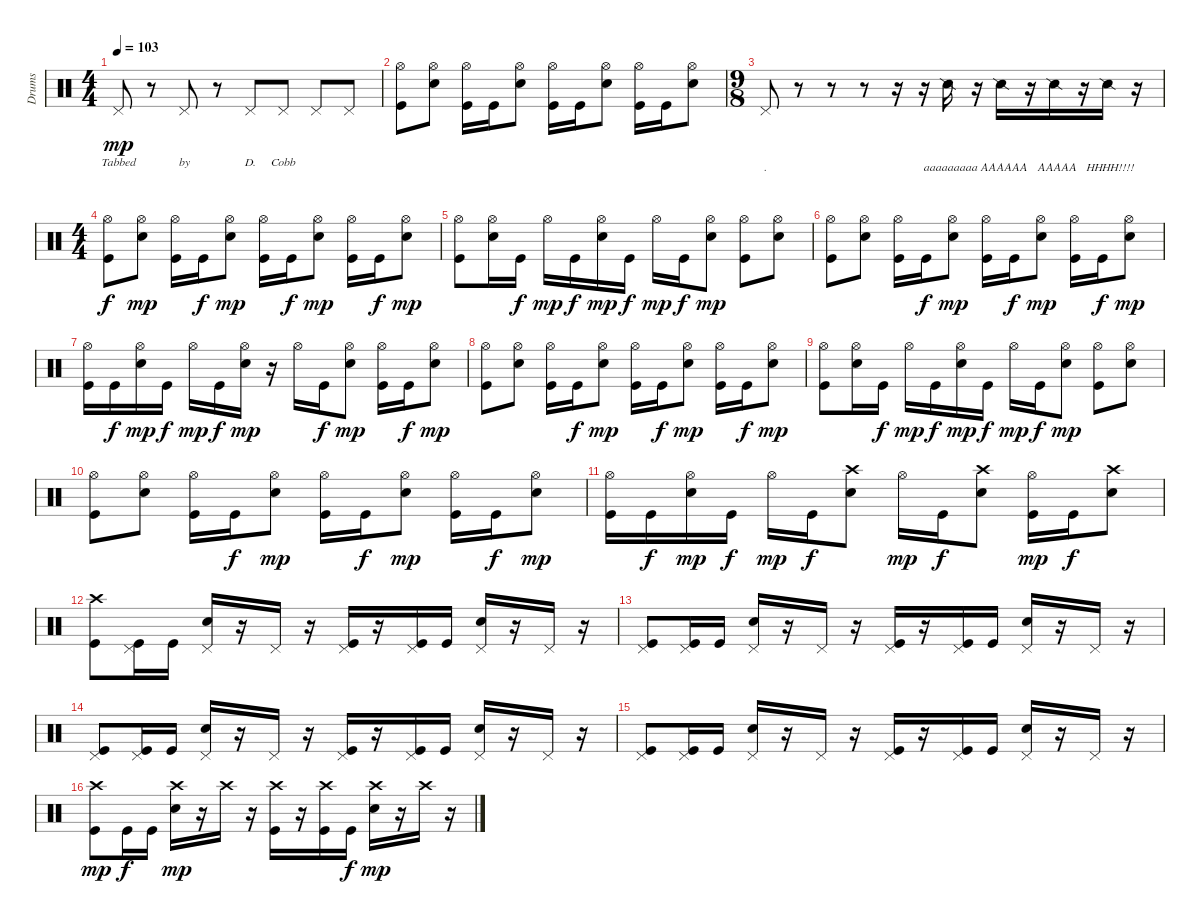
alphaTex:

\track ("Drums" "Drums") {instrument percussion}
\staff {score}
\articulation defaults
\ts (4 4)
\tempo 103
\clef neutral
\ks c "Pedal Hi-Hat (hit)".8{lyrics (0 "Tabbed") lyrics (1 "") lyrics (2 "") lyrics (3 "") lyrics (4 "") dy mp}
r.8 "Pedal Hi-Hat (hit)".8{lyrics (0 "by") lyrics (1 "") lyrics (2 "") lyrics (3 "") lyrics (4 "")} r.8 "Pedal Hi-Hat (hit)".8{lyrics (0 "D.") lyrics (1 "") lyrics (2 "") lyrics (3 "") lyrics (4 "")} "Pedal Hi-Hat (hit)".8{lyrics (0 "Cobb") lyrics (1 "") lyrics (2 "") lyrics (3 "") lyrics (4 "")} "Pedal Hi-Hat (hit)".8 "Pedal Hi-Hat (hit)".8 |
("Hi-Hat (open)" "Kick (hit)").8 ("Hi-Hat (open)" "Snare (hit) 2").8 ("Hi-Hat (open)" "Kick (hit)").16 "Kick (hit)".16 ("Hi-Hat (open)" "Snare (hit) 2").8 ("Hi-Hat (open)" "Kick (hit)").16 "Kick (hit)".16 ("Hi-Hat (open)" "Snare (hit) 2").8 ("Hi-Hat (open)" "Kick (hit)").16 "Kick (hit)".16 ("Hi-Hat (open)" "Snare (hit) 2").8 |
\ts (9 8)
"Pedal Hi-Hat (hit)".8{lyrics (0 "") lyrics (1 ".") lyrics (2 "") lyrics (3 "") lyrics (4 "")} r.8 r.8 r.8 r.16 r.16 "Snare (side stick) 2".16{lyrics (0 "") lyrics (1 "aaaaaaaaa") lyrics (2 "") lyrics (3 "") lyrics (4 "")} r.16 "Snare (side stick) 2".16{lyrics (0 "") lyrics (1 "AAAAAA") lyrics (2 "") lyrics (3 "") lyrics (4 "")} r.16 "Snare (side stick) 2".16{lyrics (0 "") lyrics (1 "AAAAA") lyrics (2 "") lyrics (3 "") lyrics (4 "")} r.16 "Snare (side stick) 2".16{lyrics (0 "") lyrics (1 "HHHH!!!!") lyrics (2 "") lyrics (3 "") lyrics (4 "")} r.16 |
\ts (4 4)
("Hi-Hat (open)" "Kick (hit)").8{dy f} ("Hi-Hat (open)" "Snare (hit) 2").8{dy mp} ("Hi-Hat (open)" "Kick (hit)").16 "Kick (hit)".16{dy f} ("Hi-Hat (open)" "Snare (hit) 2").8{dy mp} ("Hi-Hat (open)" "Kick (hit)").16 "Kick (hit)".16{dy f} ("Hi-Hat (open)" "Snare (hit) 2").8{dy mp} ("Hi-Hat (open)" "Kick (hit)").16 "Kick (hit)".16{dy f} ("Hi-Hat (open)" "Snare (hit) 2").8{dy mp} |
("Hi-Hat (open)" "Kick (hit)").8 ("Hi-Hat (open)" "Snare (hit) 2").16 "Kick (hit)".16{dy f} "Hi-Hat (open)".16{dy mp} "Kick (hit)".16{dy f} ("Hi-Hat (open)" "Snare (hit) 2").16{dy mp} "Kick (hit)".16{dy f} "Hi-Hat (open)".16{dy mp} "Kick (hit)".16{dy f} ("Hi-Hat (open)" "Snare (hit) 2").8{dy mp} ("Hi-Hat (open)" "Kick (hit)").8 ("Hi-Hat (open)" "Snare (hit) 2").8 |
("Hi-Hat (open)" "Kick (hit)").8 ("Hi-Hat (open)" "Snare (hit) 2").8 ("Hi-Hat (open)" "Kick (hit)").16 "Kick (hit)".16{dy f} ("Hi-Hat (open)" "Snare (hit) 2").8{dy mp} ("Hi-Hat (open)" "Kick (hit)").16 "Kick (hit)".16{dy f} ("Hi-Hat (open)" "Snare (hit) 2").8{dy mp} ("Hi-Hat (open)" "Kick (hit)").16 "Kick (hit)".16{dy f} ("Hi-Hat (open)" "Snare (hit) 2").8{dy mp} |
("Hi-Hat (open)" "Kick (hit)").16 "Kick (hit)".16{dy f} ("Hi-Hat (open)" "Snare (hit) 2").16{dy mp} "Kick (hit)".16{dy f} "Hi-Hat (open)".16{dy mp} "Kick (hit)".16{dy f} ("Hi-Hat (open)" "Snare (hit) 2").16{dy mp} r.16 "Hi-Hat (open)".16 "Kick (hit)".16{dy f} ("Hi-Hat (open)" "Snare (hit) 2").8{dy mp} ("Hi-Hat (open)" "Kick (hit)").16 "Kick (hit)".16{dy f} ("Hi-Hat (open)" "Snare (hit) 2").8{dy mp} |
("Hi-Hat (open)" "Kick (hit)").8 ("Hi-Hat (open)" "Snare (hit) 2").8 ("Hi-Hat (open)" "Kick (hit)").16 "Kick (hit)".16{dy f} ("Hi-Hat (open)" "Snare (hit) 2").8{dy mp} ("Hi-Hat (open)" "Kick (hit)").16 "Kick (hit)".16{dy f} ("Hi-Hat (open)" "Snare (hit) 2").8{dy mp} ("Hi-Hat (open)" "Kick (hit)").16 "Kick (hit)".16{dy f} ("Hi-Hat (open)" "Snare (hit) 2").8{dy mp} |
("Hi-Hat (open)" "Kick (hit)").8 ("Hi-Hat (open)" "Snare (hit) 2").16 "Kick (hit)".16{dy f} "Hi-Hat (open)".16{dy mp} "Kick (hit)".16{dy f} ("Hi-Hat (open)" "Snare (hit) 2").16{dy mp} "Kick (hit)".16{dy f} "Hi-Hat (open)".16{dy mp} "Kick (hit)".16{dy f} ("Hi-Hat (open)" "Snare (hit) 2").8{dy mp} ("Hi-Hat (open)" "Kick (hit)").8 ("Hi-Hat (open)" "Snare (hit) 2").8 |
("Hi-Hat (open)" "Kick (hit)").8 ("Hi-Hat (open)" "Snare (hit) 2").8 ("Hi-Hat (open)" "Kick (hit)").16 "Kick (hit)".16{dy f} ("Hi-Hat (open)" "Snare (hit) 2").8{dy mp} ("Hi-Hat (open)" "Kick (hit)").16 "Kick (hit)".16{dy f} ("Hi-Hat (open)" "Snare (hit) 2").8{dy mp} ("Hi-Hat (open)" "Kick (hit)").16 "Kick (hit)".16{dy f} ("Hi-Hat (open)" "Snare (hit) 2").8{dy mp} |
("Hi-Hat (open)" "Kick (hit)").16 "Kick (hit)".16{dy f} ("Hi-Hat (open)" "Snare (hit) 2").16{dy mp} "Kick (hit)".16{dy f} "Hi-Hat (open)".16{dy mp} "Kick (hit)".16{dy f} ("Crash high (hit)" "Snare (hit) 2").8 "Hi-Hat (open)".16{dy mp} "Kick (hit)".16{dy f} ("Crash high (hit)" "Snare (hit) 2").8 ("Hi-Hat (open)" "Kick (hit)").16{dy mp} "Kick (hit)".16{dy f} ("Crash high (hit)" "Snare (hit) 2").8 |
("Crash high (hit)" "Kick (hit)").8 ("Pedal Hi-Hat (hit)" "Kick (hit)").16 "Kick (hit)".16 ("Pedal Hi-Hat (hit)" "Snare (hit) 2").16 r.16 "Pedal Hi-Hat (hit)".16 r.16 ("Pedal Hi-Hat (hit)" "Kick (hit)").16 r.16 ("Pedal Hi-Hat (hit)" "Kick (hit)").16 "Kick (hit)".16 ("Pedal Hi-Hat (hit)" "Snare (hit) 2").16 r.16 "Pedal Hi-Hat (hit)".16 r.16 |
("Pedal Hi-Hat (hit)" "Kick (hit)").8 ("Pedal Hi-Hat (hit)" "Kick (hit)").16 "Kick (hit)".16 ("Pedal Hi-Hat (hit)" "Snare (hit) 2").16 r.16 "Pedal Hi-Hat (hit)".16 r.16 ("Pedal Hi-Hat (hit)" "Kick (hit)").16 r.16 ("Pedal Hi-Hat (hit)" "Kick (hit)").16 "Kick (hit)".16 ("Pedal Hi-Hat (hit)" "Snare (hit) 2").16 r.16 "Pedal Hi-Hat (hit)".16 r.16 |
("Pedal Hi-Hat (hit)" "Kick (hit)").8 ("Pedal Hi-Hat (hit)" "Kick (hit)").16 "Kick (hit)".16 ("Pedal Hi-Hat (hit)" "Snare (hit) 2").16 r.16 "Pedal Hi-Hat (hit)".16 r.16 ("Pedal Hi-Hat (hit)" "Kick (hit)").16 r.16 ("Pedal Hi-Hat (hit)" "Kick (hit)").16 "Kick (hit)".16 ("Pedal Hi-Hat (hit)" "Snare (hit) 2").16 r.16 "Pedal Hi-Hat (hit)".16 r.16 |
("Pedal Hi-Hat (hit)" "Kick (hit)").8 ("Pedal Hi-Hat (hit)" "Kick (hit)").16 "Kick (hit)".16 ("Pedal Hi-Hat (hit)" "Snare (hit) 2").16 r.16 "Pedal Hi-Hat (hit)".16 r.16 ("Pedal Hi-Hat (hit)" "Kick (hit)").16 r.16 ("Pedal Hi-Hat (hit)" "Kick (hit)").16 "Kick (hit)".16 ("Pedal Hi-Hat (hit)" "Snare (hit) 2").16 r.16 "Pedal Hi-Hat (hit)".16 r.16 |
("Crash high (hit)" "Kick (hit)").8{dy mp} "Kick (hit)".16{dy f} "Kick (hit)".16 ("Crash high (hit)" "Snare (hit) 2").16{dy mp} r.16 "Crash high (hit)".16 r.16 ("Crash high (hit)" "Kick (hit)").16 r.16 ("Crash high (hit)" "Kick (hit)").16 "Kick (hit)".16{dy f} ("Crash high (hit)" "Snare (hit) 2").16{dy mp} r.16 "Crash high (hit)".16 r.16
